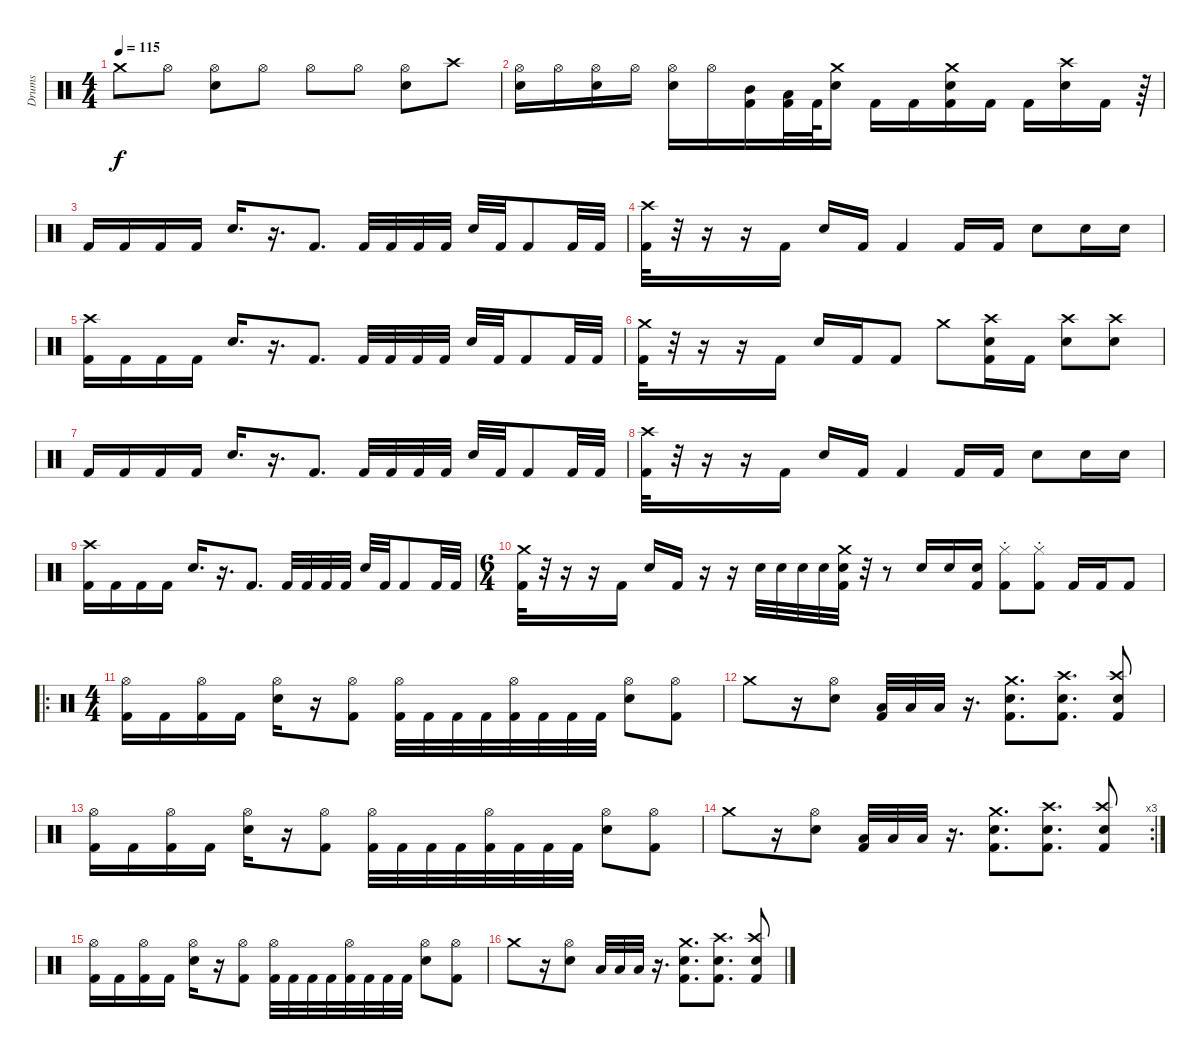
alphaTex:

\track ("Drums" "Drums") {instrument percussion}
\staff {score}
\articulation defaults
\ts (4 4)
\tempo 115
\clef neutral
\ks c "Crash medium (hit)".8{dy f} "Hi-Hat (open)".8
("Hi-Hat (open)" "Snare (hit) 2").8 "Hi-Hat (open)".8 "Hi-Hat (open)".8 "Hi-Hat (open)".8 ("Hi-Hat (open)" "Snare (hit) 2").8 "Crash high (hit)".8 |
("Hi-Hat (open)" "Snare (hit) 2").16 "Hi-Hat (open)".16 ("Hi-Hat (open)" "Snare (hit) 2").16 "Hi-Hat (open)".16 ("Hi-Hat (open)" "Snare (hit) 2").16 "Hi-Hat (open)".16 ("Kick (hit) 2" "Mid Tom (hit)").16 ("Kick (hit) 2" "Low Tom (hit)").32 "Kick (hit) 2".64 ("Crash medium (hit)" "Snare (hit) 2").16 "Kick (hit) 2".16 "Kick (hit) 2".16 ("Kick (hit) 2" "Crash medium (hit)" "Snare (hit) 2").16 "Kick (hit) 2".16 "Kick (hit) 2".16 ("Crash high (hit)" "Snare (hit) 2").16 "Kick (hit) 2".16 r.64 |
"Kick (hit) 2".16 "Kick (hit) 2".16 "Kick (hit) 2".16 "Kick (hit) 2".16 "Snare (hit) 2".16{d} r.16{d} "Kick (hit) 2".8{d} "Kick (hit) 2".32 "Kick (hit) 2".32 "Kick (hit) 2".32 "Kick (hit) 2".32 "Snare (hit) 2".32 "Kick (hit) 2".32 "Kick (hit) 2".8 "Kick (hit) 2".32 "Kick (hit) 2".32 |
("Kick (hit) 2" "Crash high (hit)").32 r.32 r.16 r.16 "Kick (hit) 2".16 "Snare (hit) 2".16 "Kick (hit) 2".16 "Kick (hit) 2".4 "Kick (hit) 2".16 "Kick (hit) 2".16 "Snare (hit) 2".8 "Snare (hit) 2".16 "Snare (hit) 2".16 |
("Kick (hit) 2" "Crash high (hit)").16 "Kick (hit) 2".16 "Kick (hit) 2".16 "Kick (hit) 2".16 "Snare (hit) 2".16{d} r.16{d} "Kick (hit) 2".8{d} "Kick (hit) 2".32 "Kick (hit) 2".32 "Kick (hit) 2".32 "Kick (hit) 2".32 "Snare (hit) 2".32 "Kick (hit) 2".32 "Kick (hit) 2".8 "Kick (hit) 2".32 "Kick (hit) 2".32 |
("Kick (hit) 2" "Crash medium (hit)").32 r.32 r.16 r.16 "Kick (hit) 2".16 "Snare (hit) 2".16 "Kick (hit) 2".16 "Kick (hit) 2".8 "Crash medium (hit)".8 ("Kick (hit) 2" "Crash high (hit)" "Snare (hit) 2").16 "Kick (hit) 2".16 ("Crash high (hit)" "Snare (hit) 2").8 ("Crash high (hit)" "Snare (hit) 2").8 |
"Kick (hit) 2".16 "Kick (hit) 2".16 "Kick (hit) 2".16 "Kick (hit) 2".16 "Snare (hit) 2".16{d} r.16{d} "Kick (hit) 2".8{d} "Kick (hit) 2".32 "Kick (hit) 2".32 "Kick (hit) 2".32 "Kick (hit) 2".32 "Snare (hit) 2".32 "Kick (hit) 2".32 "Kick (hit) 2".8 "Kick (hit) 2".32 "Kick (hit) 2".32 |
("Kick (hit) 2" "Crash high (hit)").32 r.32 r.16 r.16 "Kick (hit) 2".16 "Snare (hit) 2".16 "Kick (hit) 2".16 "Kick (hit) 2".4 "Kick (hit) 2".16 "Kick (hit) 2".16 "Snare (hit) 2".8 "Snare (hit) 2".16 "Snare (hit) 2".16 |
("Kick (hit) 2" "Crash high (hit)").16 "Kick (hit) 2".16 "Kick (hit) 2".16 "Kick (hit) 2".16 "Snare (hit) 2".16{d} r.16{d} "Kick (hit) 2".8{d} "Kick (hit) 2".32 "Kick (hit) 2".32 "Kick (hit) 2".32 "Kick (hit) 2".32 "Snare (hit) 2".32 "Kick (hit) 2".32 "Kick (hit) 2".8 "Kick (hit) 2".32 "Kick (hit) 2".32 |
\ts (6 4)
("Kick (hit) 2" "Crash medium (hit)").32 r.32 r.16 r.16 "Kick (hit) 2".16 "Snare (hit) 2".16 "Kick (hit) 2".16 r.16 r.16 "Snare (hit) 2".32 "Snare (hit) 2".32 "Snare (hit) 2".32 "Snare (hit) 2".32 ("Kick (hit) 2" "Crash medium (hit)" "Snare (hit) 2").32 r.32 r.8 "Snare (hit) 2".16 "Snare (hit) 2".16 ("Kick (hit) 2" "Snare (hit) 2").16 ("Kick (hit) 2" "Hi-Hat (closed)"{st}).8 ("Kick (hit) 2" "Hi-Hat (closed)"{st}).8 "Kick (hit) 2".16 "Kick (hit) 2".16 "Kick (hit) 2".8 |
\ro
\ts (4 4)
("Kick (hit) 2" "Hi-Hat (open)").16 "Kick (hit) 2".16 ("Kick (hit) 2" "Hi-Hat (open)").16 "Kick (hit) 2".16 ("Hi-Hat (open)" "Snare (hit) 2").16 r.16 ("Kick (hit) 2" "Hi-Hat (open)").8 ("Kick (hit) 2" "Hi-Hat (open)").32 "Kick (hit) 2".32 "Kick (hit) 2".32 "Kick (hit) 2".32 ("Kick (hit) 2" "Hi-Hat (open)").32 "Kick (hit) 2".32 "Kick (hit) 2".32 "Kick (hit) 2".32 ("Hi-Hat (open)" "Snare (hit) 2").8 ("Kick (hit) 2" "Hi-Hat (open)").8 |
"Crash medium (hit)".8 r.16 ("Hi-Hat (open)" "Snare (hit) 2").8 ("Kick (hit) 2" "Low Floor Tom (hit)").32 "Low Floor Tom (hit)".32 "Low Floor Tom (hit)".32 r.16{d} ("Kick (hit) 2" "Crash medium (hit)" "Snare (hit) 2").8{d} ("Kick (hit) 2" "Crash high (hit)" "Snare (hit) 2").8{d} ("Kick (hit) 2" "Crash high (hit)" "Snare (hit) 2").8 |
("Kick (hit) 2" "Hi-Hat (open)").16 "Kick (hit) 2".16 ("Kick (hit) 2" "Hi-Hat (open)").16 "Kick (hit) 2".16 ("Hi-Hat (open)" "Snare (hit) 2").16 r.16 ("Kick (hit) 2" "Hi-Hat (open)").8 ("Kick (hit) 2" "Hi-Hat (open)").32 "Kick (hit) 2".32 "Kick (hit) 2".32 "Kick (hit) 2".32 ("Kick (hit) 2" "Hi-Hat (open)").32 "Kick (hit) 2".32 "Kick (hit) 2".32 "Kick (hit) 2".32 ("Hi-Hat (open)" "Snare (hit) 2").8 ("Kick (hit) 2" "Hi-Hat (open)").8 |
\rc 3 "Crash medium (hit)".8
r.16 ("Hi-Hat (open)" "Snare (hit) 2").8 ("Kick (hit) 2" "Low Floor Tom (hit)").32 "Low Floor Tom (hit)".32 "Low Floor Tom (hit)".32 r.16{d} ("Kick (hit) 2" "Crash medium (hit)" "Snare (hit) 2").8{d} ("Kick (hit) 2" "Crash high (hit)" "Snare (hit) 2").8{d} ("Kick (hit) 2" "Crash high (hit)" "Snare (hit) 2").8 |
("Kick (hit) 2" "Hi-Hat (open)").16 "Kick (hit) 2".16 ("Kick (hit) 2" "Hi-Hat (open)").16 "Kick (hit) 2".16 ("Hi-Hat (open)" "Snare (hit) 2").16 r.16 ("Kick (hit) 2" "Hi-Hat (open)").8 ("Kick (hit) 2" "Hi-Hat (open)").32 "Kick (hit) 2".32 "Kick (hit) 2".32 "Kick (hit) 2".32 ("Kick (hit) 2" "Hi-Hat (open)").32 "Kick (hit) 2".32 "Kick (hit) 2".32 "Kick (hit) 2".32 ("Hi-Hat (open)" "Snare (hit) 2").8 ("Kick (hit) 2" "Hi-Hat (open)").8 |
"Crash medium (hit)".8 r.16 ("Hi-Hat (open)" "Snare (hit) 2").8 "Low Floor Tom (hit)".32 "Low Floor Tom (hit)".32 "Low Floor Tom (hit)".32 r.16{d} ("Kick (hit) 2" "Crash medium (hit)" "Snare (hit) 2").8{d} ("Kick (hit) 2" "Crash high (hit)" "Snare (hit) 2").8{d} ("Kick (hit) 2" "Crash high (hit)" "Snare (hit) 2").8
